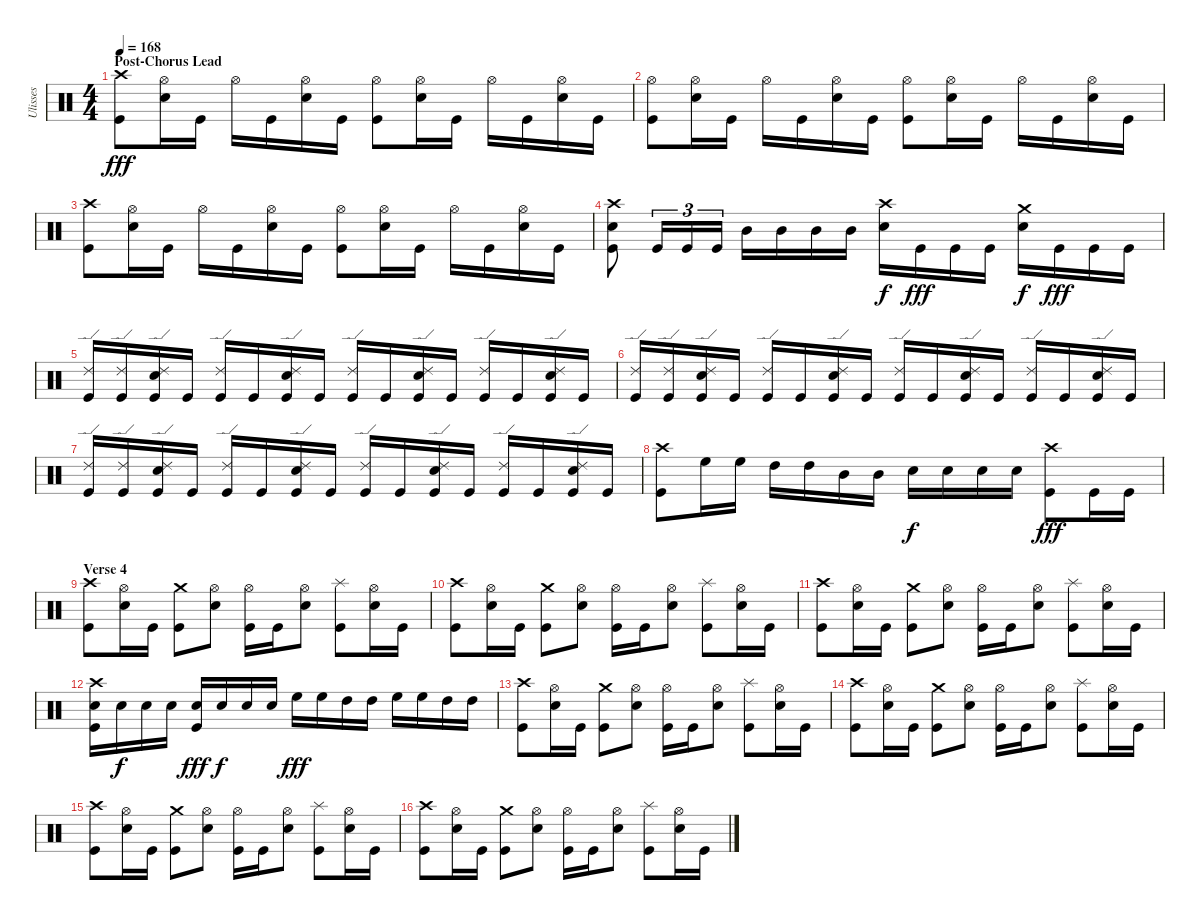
\track ("Ulisses" "Ulisses") {instrument percussion}
\staff {score}
\articulation defaults
\ts (4 4)
\section ("" "Post-Chorus Lead")
\tempo 168
\clef neutral
\ks c
("Crash high (hit)" "Kick (hit)").8{dy fff} ("Hi-Hat (open)" "Snare (hit) 2").16 "Kick (hit)".16 "Hi-Hat (open)".16 "Kick (hit)".16 ("Hi-Hat (open)" "Snare (hit) 2").16 "Kick (hit)".16 ("Hi-Hat (open)" "Kick (hit)").8 ("Hi-Hat (open)" "Snare (hit) 2").16 "Kick (hit)".16 "Hi-Hat (open)".16 "Kick (hit)".16 ("Hi-Hat (open)" "Snare (hit) 2").16 "Kick (hit)".16 |
("Hi-Hat (open)" "Kick (hit)").8 ("Hi-Hat (open)" "Snare (hit) 2").16 "Kick (hit)".16 "Hi-Hat (open)".16 "Kick (hit)".16 ("Hi-Hat (open)" "Snare (hit) 2").16 "Kick (hit)".16 ("Hi-Hat (open)" "Kick (hit)").8 ("Hi-Hat (open)" "Snare (hit) 2").16 "Kick (hit)".16 "Hi-Hat (open)".16 "Kick (hit)".16 ("Hi-Hat (open)" "Snare (hit) 2").16 "Kick (hit)".16 |
("Crash high (hit)" "Kick (hit)").8 ("Hi-Hat (open)" "Snare (hit) 2").16 "Kick (hit)".16 "Hi-Hat (open)".16 "Kick (hit)".16 ("Hi-Hat (open)" "Snare (hit) 2").16 "Kick (hit)".16 ("Hi-Hat (open)" "Kick (hit)").8 ("Hi-Hat (open)" "Snare (hit) 2").16 "Kick (hit)".16 "Hi-Hat (open)".16 "Kick (hit)".16 ("Hi-Hat (open)" "Snare (hit) 2").16 "Kick (hit)".16 |
("Crash high (hit)" "Snare (hit) 2" "Kick (hit)").8 "Kick (hit)".16{tu (3 2)} "Kick (hit)".16{tu (3 2)} "Kick (hit)".16{tu (3 2)} "Mid Tom (hit)".16 "Mid Tom (hit)".16 "Mid Tom (hit)".16 "Mid Tom (hit)".16 ("Crash high (hit)" "Snare (hit) 2").16{dy f} "Kick (hit)".16{dy fff} "Kick (hit)".16 "Kick (hit)".16 ("Crash medium (hit)" "Snare (hit) 2").16{dy f} "Kick (hit)".16{dy fff} "Kick (hit)".16 "Kick (hit)".16 |
("Ride (edge) 2" "Kick (hit)").16 ("Ride (edge) 2" "Kick (hit)").16 ("Ride (edge) 2" "Snare (hit) 2" "Kick (hit)").16 "Kick (hit)".16 ("Ride (edge) 2" "Kick (hit)").16 "Kick (hit)".16 ("Ride (edge) 2" "Snare (hit) 2" "Kick (hit)").16 "Kick (hit)".16 ("Ride (edge) 2" "Kick (hit)").16 "Kick (hit)".16 ("Ride (edge) 2" "Snare (hit) 2" "Kick (hit)").16 "Kick (hit)".16 ("Ride (edge) 2" "Kick (hit)").16 "Kick (hit)".16 ("Ride (edge) 2" "Snare (hit) 2" "Kick (hit)").16 "Kick (hit)".16 |
("Ride (edge) 2" "Kick (hit)").16 ("Ride (edge) 2" "Kick (hit)").16 ("Ride (edge) 2" "Snare (hit) 2" "Kick (hit)").16 "Kick (hit)".16 ("Ride (edge) 2" "Kick (hit)").16 "Kick (hit)".16 ("Ride (edge) 2" "Snare (hit) 2" "Kick (hit)").16 "Kick (hit)".16 ("Ride (edge) 2" "Kick (hit)").16 "Kick (hit)".16 ("Ride (edge) 2" "Snare (hit) 2" "Kick (hit)").16 "Kick (hit)".16 ("Ride (edge) 2" "Kick (hit)").16 "Kick (hit)".16 ("Ride (edge) 2" "Snare (hit) 2" "Kick (hit)").16 "Kick (hit)".16 |
("Ride (edge) 2" "Kick (hit)").16 ("Ride (edge) 2" "Kick (hit)").16 ("Ride (edge) 2" "Snare (hit) 2" "Kick (hit)").16 "Kick (hit)".16 ("Ride (edge) 2" "Kick (hit)").16 "Kick (hit)".16 ("Ride (edge) 2" "Snare (hit) 2" "Kick (hit)").16 "Kick (hit)".16 ("Ride (edge) 2" "Kick (hit)").16 "Kick (hit)".16 ("Ride (edge) 2" "Snare (hit) 2" "Kick (hit)").16 "Kick (hit)".16 ("Ride (edge) 2" "Kick (hit)").16 "Kick (hit)".16 ("Ride (edge) 2" "Snare (hit) 2" "Kick (hit)").16 "Kick (hit)".16 |
("Crash high (hit)" "Kick (hit)").8 "High Floor Tom (hit)".16 "High Floor Tom (hit)".16 "High Tom (hit)".16 "High Tom (hit)".16 "Mid Tom (hit)".16 "Mid Tom (hit)".16 "Snare (hit) 2".16{dy f} "Snare (hit) 2".16 "Snare (hit) 2".16 "Snare (hit) 2".16 ("Crash high (hit)" "Kick (hit)").8{dy fff} "Kick (hit)".16 "Kick (hit)".16 |
\section ("" "Verse 4")
("Crash high (hit)" "Kick (hit)").8 ("Hi-Hat (open)" "Snare (hit) 2").16 "Kick (hit)".16 ("Crash medium (hit)" "Kick (hit)").8 ("Hi-Hat (open)" "Snare (hit) 2").8 ("Hi-Hat (open)" "Kick (hit)").16 "Kick (hit)".16 ("Hi-Hat (open)" "Snare (hit) 2").8 ("Splash (hit)" "Kick (hit)").8 ("Hi-Hat (open)" "Snare (hit) 2").16 "Kick (hit)".16 |
("Crash high (hit)" "Kick (hit)").8 ("Hi-Hat (open)" "Snare (hit) 2").16 "Kick (hit)".16 ("Crash medium (hit)" "Kick (hit)").8 ("Hi-Hat (open)" "Snare (hit) 2").8 ("Hi-Hat (open)" "Kick (hit)").16 "Kick (hit)".16 ("Hi-Hat (open)" "Snare (hit) 2").8 ("Splash (hit)" "Kick (hit)").8 ("Hi-Hat (open)" "Snare (hit) 2").16 "Kick (hit)".16 |
("Crash high (hit)" "Kick (hit)").8 ("Hi-Hat (open)" "Snare (hit) 2").16 "Kick (hit)".16 ("Crash medium (hit)" "Kick (hit)").8 ("Hi-Hat (open)" "Snare (hit) 2").8 ("Hi-Hat (open)" "Kick (hit)").16 "Kick (hit)".16 ("Hi-Hat (open)" "Snare (hit) 2").8 ("Splash (hit)" "Kick (hit)").8 ("Hi-Hat (open)" "Snare (hit) 2").16 "Kick (hit)".16 |
("Crash high (hit)" "Snare (hit) 2" "Kick (hit)").16 "Snare (hit) 2".16{dy f} "Snare (hit) 2".16 "Snare (hit) 2".16 ("Snare (hit) 2" "Kick (hit)").16{dy fff} "Snare (hit) 2".16{dy f} "Snare (hit) 2".16 "Snare (hit) 2".16 "High Floor Tom (hit)".16{dy fff} "High Floor Tom (hit)".16 "High Tom (hit)".16 "High Tom (hit)".16 "High Floor Tom (hit)".16 "High Floor Tom (hit)".16 "High Tom (hit)".16 "High Tom (hit)".16 |
("Crash high (hit)" "Kick (hit)").8 ("Hi-Hat (open)" "Snare (hit) 2").16 "Kick (hit)".16 ("Crash medium (hit)" "Kick (hit)").8 ("Hi-Hat (open)" "Snare (hit) 2").8 ("Hi-Hat (open)" "Kick (hit)").16 "Kick (hit)".16 ("Hi-Hat (open)" "Snare (hit) 2").8 ("Splash (hit)" "Kick (hit)").8 ("Hi-Hat (open)" "Snare (hit) 2").16 "Kick (hit)".16 |
("Crash high (hit)" "Kick (hit)").8 ("Hi-Hat (open)" "Snare (hit) 2").16 "Kick (hit)".16 ("Crash medium (hit)" "Kick (hit)").8 ("Hi-Hat (open)" "Snare (hit) 2").8 ("Hi-Hat (open)" "Kick (hit)").16 "Kick (hit)".16 ("Hi-Hat (open)" "Snare (hit) 2").8 ("Splash (hit)" "Kick (hit)").8 ("Hi-Hat (open)" "Snare (hit) 2").16 "Kick (hit)".16 |
("Crash high (hit)" "Kick (hit)").8 ("Hi-Hat (open)" "Snare (hit) 2").16 "Kick (hit)".16 ("Crash medium (hit)" "Kick (hit)").8 ("Hi-Hat (open)" "Snare (hit) 2").8 ("Hi-Hat (open)" "Kick (hit)").16 "Kick (hit)".16 ("Hi-Hat (open)" "Snare (hit) 2").8 ("Splash (hit)" "Kick (hit)").8 ("Hi-Hat (open)" "Snare (hit) 2").16 "Kick (hit)".16 |
("Crash high (hit)" "Kick (hit)").8 ("Hi-Hat (open)" "Snare (hit) 2").16 "Kick (hit)".16 ("Crash medium (hit)" "Kick (hit)").8 ("Hi-Hat (open)" "Snare (hit) 2").8 ("Hi-Hat (open)" "Kick (hit)").16 "Kick (hit)".16 ("Hi-Hat (open)" "Snare (hit) 2").8 ("Splash (hit)" "Kick (hit)").8 ("Hi-Hat (open)" "Snare (hit) 2").16 "Kick (hit)".16
